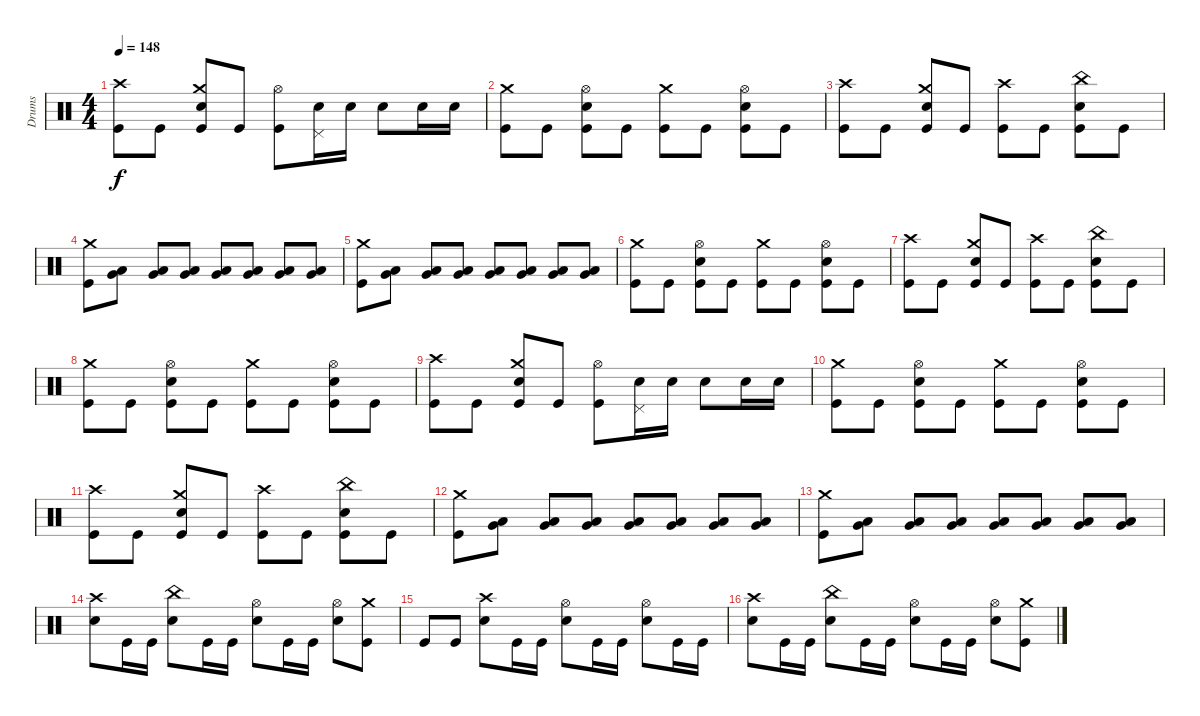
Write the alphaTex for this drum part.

\track ("Drums" "Drums") {instrument percussion}
\staff {score}
\articulation defaults
\ts (4 4)
\tempo 148
\clef neutral
\ks c
("Crash high (hit)" "Kick (hit)").8{dy f} "Kick (hit)".8 ("Crash medium (hit)" "Electric Snare (hit)" "Kick (hit)").8 "Kick (hit)".8 ("Hi-Hat (open)" "Kick (hit)").8 ("Pedal Hi-Hat (hit)" "Electric Snare (hit)").16 "Electric Snare (hit)".16 "Electric Snare (hit)".8 "Electric Snare (hit)".16 "Electric Snare (hit)".16 |
("Crash medium (hit)" "Kick (hit)").8 "Kick (hit)".8 ("Hi-Hat (open)" "Electric Snare (hit)" "Kick (hit)").8 "Kick (hit)".8 ("Crash medium (hit)" "Kick (hit)").8 "Kick (hit)".8 ("Hi-Hat (open)" "Electric Snare (hit)" "Kick (hit)").8 "Kick (hit)".8 |
("Crash high (hit)" "Kick (hit)").8 "Kick (hit)".8 ("Crash medium (hit)" "Electric Snare (hit)" "Kick (hit)").8 "Kick (hit)".8 ("Crash high (hit)" "Kick (hit)").8 "Kick (hit)".8 ("China (hit)" "Electric Snare (hit)" "Kick (hit)").8 "Kick (hit)".8 |
("Crash medium (hit)" "Kick (hit)").8 ("Low Tom (hit)" "Very Low Tom (hit)").8 ("Low Tom (hit)" "Very Low Tom (hit)").8 ("Low Tom (hit)" "Very Low Tom (hit)").8 ("Low Tom (hit)" "Very Low Tom (hit)").8 ("Low Tom (hit)" "Very Low Tom (hit)").8 ("Low Tom (hit)" "Very Low Tom (hit)").8 ("Low Tom (hit)" "Very Low Tom (hit)").8 |
("Crash medium (hit)" "Kick (hit)").8 ("Low Tom (hit)" "Very Low Tom (hit)").8 ("Low Tom (hit)" "Very Low Tom (hit)").8 ("Low Tom (hit)" "Very Low Tom (hit)").8 ("Low Tom (hit)" "Very Low Tom (hit)").8 ("Low Tom (hit)" "Very Low Tom (hit)").8 ("Low Tom (hit)" "Very Low Tom (hit)").8 ("Low Tom (hit)" "Very Low Tom (hit)").8 |
("Crash medium (hit)" "Kick (hit)").8 "Kick (hit)".8 ("Hi-Hat (open)" "Electric Snare (hit)" "Kick (hit)").8 "Kick (hit)".8 ("Crash medium (hit)" "Kick (hit)").8 "Kick (hit)".8 ("Hi-Hat (open)" "Electric Snare (hit)" "Kick (hit)").8 "Kick (hit)".8 |
("Crash high (hit)" "Kick (hit)").8 "Kick (hit)".8 ("Crash medium (hit)" "Electric Snare (hit)" "Kick (hit)").8 "Kick (hit)".8 ("Crash high (hit)" "Kick (hit)").8 "Kick (hit)".8 ("China (hit)" "Electric Snare (hit)" "Kick (hit)").8 "Kick (hit)".8 |
("Crash medium (hit)" "Kick (hit)").8 "Kick (hit)".8 ("Hi-Hat (open)" "Electric Snare (hit)" "Kick (hit)").8 "Kick (hit)".8 ("Crash medium (hit)" "Kick (hit)").8 "Kick (hit)".8 ("Hi-Hat (open)" "Electric Snare (hit)" "Kick (hit)").8 "Kick (hit)".8 |
("Crash high (hit)" "Kick (hit)").8 "Kick (hit)".8 ("Crash medium (hit)" "Electric Snare (hit)" "Kick (hit)").8 "Kick (hit)".8 ("Hi-Hat (open)" "Kick (hit)").8 ("Pedal Hi-Hat (hit)" "Electric Snare (hit)").16 "Electric Snare (hit)".16 "Electric Snare (hit)".8 "Electric Snare (hit)".16 "Electric Snare (hit)".16 |
("Crash medium (hit)" "Kick (hit)").8 "Kick (hit)".8 ("Hi-Hat (open)" "Electric Snare (hit)" "Kick (hit)").8 "Kick (hit)".8 ("Crash medium (hit)" "Kick (hit)").8 "Kick (hit)".8 ("Hi-Hat (open)" "Electric Snare (hit)" "Kick (hit)").8 "Kick (hit)".8 |
("Crash high (hit)" "Kick (hit)").8 "Kick (hit)".8 ("Crash medium (hit)" "Electric Snare (hit)" "Kick (hit)").8 "Kick (hit)".8 ("Crash high (hit)" "Kick (hit)").8 "Kick (hit)".8 ("China (hit)" "Electric Snare (hit)" "Kick (hit)").8 "Kick (hit)".8 |
("Crash medium (hit)" "Kick (hit)").8 ("Low Tom (hit)" "Very Low Tom (hit)").8 ("Low Tom (hit)" "Very Low Tom (hit)").8 ("Low Tom (hit)" "Very Low Tom (hit)").8 ("Low Tom (hit)" "Very Low Tom (hit)").8 ("Low Tom (hit)" "Very Low Tom (hit)").8 ("Low Tom (hit)" "Very Low Tom (hit)").8 ("Low Tom (hit)" "Very Low Tom (hit)").8 |
("Crash medium (hit)" "Kick (hit)").8 ("Low Tom (hit)" "Very Low Tom (hit)").8 ("Low Tom (hit)" "Very Low Tom (hit)").8 ("Low Tom (hit)" "Very Low Tom (hit)").8 ("Low Tom (hit)" "Very Low Tom (hit)").8 ("Low Tom (hit)" "Very Low Tom (hit)").8 ("Low Tom (hit)" "Very Low Tom (hit)").8 ("Low Tom (hit)" "Very Low Tom (hit)").8 |
("Crash high (hit)" "Electric Snare (hit)").8 "Kick (hit)".16 "Kick (hit)".16 ("China (hit)" "Electric Snare (hit)").8 "Kick (hit)".16 "Kick (hit)".16 ("Hi-Hat (open)" "Electric Snare (hit)").8 "Kick (hit)".16 "Kick (hit)".16 ("Hi-Hat (open)" "Electric Snare (hit)").8 ("Crash medium (hit)" "Kick (hit)").8 |
"Kick (hit)".8 "Kick (hit)".8 ("Crash high (hit)" "Electric Snare (hit)").8 "Kick (hit)".16 "Kick (hit)".16 ("Hi-Hat (open)" "Electric Snare (hit)").8 "Kick (hit)".16 "Kick (hit)".16 ("Hi-Hat (open)" "Electric Snare (hit)").8 "Kick (hit)".16 "Kick (hit)".16 |
("Crash high (hit)" "Electric Snare (hit)").8 "Kick (hit)".16 "Kick (hit)".16 ("China (hit)" "Electric Snare (hit)").8 "Kick (hit)".16 "Kick (hit)".16 ("Hi-Hat (open)" "Electric Snare (hit)").8 "Kick (hit)".16 "Kick (hit)".16 ("Hi-Hat (open)" "Electric Snare (hit)").8 ("Crash medium (hit)" "Kick (hit)").8
